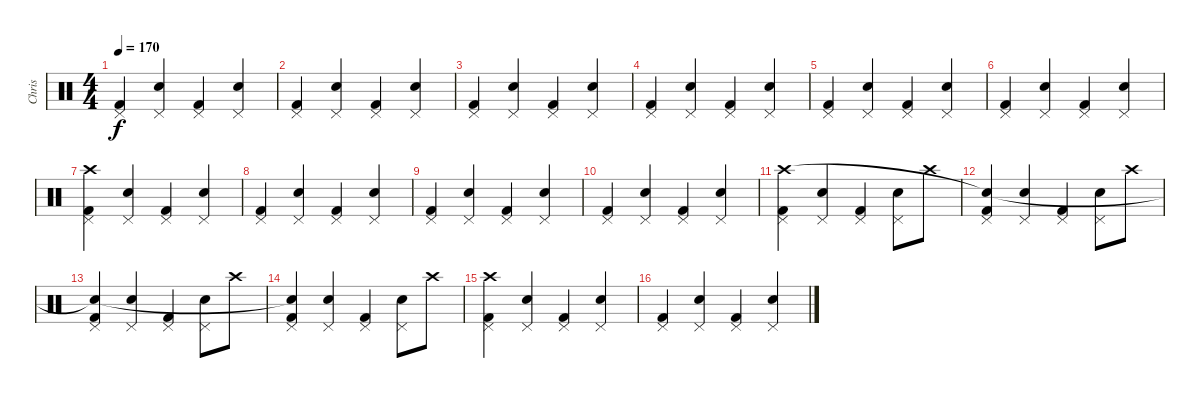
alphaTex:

\track ("Chris" "Chris") {instrument percussion}
\staff {score}
\articulation defaults
\ts (4 4)
\tempo 170
\clef neutral
\ks c
("Pedal Hi-Hat (hit)" "Kick (hit) 2").4{dy f} ("Pedal Hi-Hat (hit)" "Electric Snare (hit)").4 ("Pedal Hi-Hat (hit)" "Kick (hit) 2").4 ("Pedal Hi-Hat (hit)" "Electric Snare (hit)").4 |
("Pedal Hi-Hat (hit)" "Kick (hit) 2").4 ("Pedal Hi-Hat (hit)" "Electric Snare (hit)").4 ("Pedal Hi-Hat (hit)" "Kick (hit) 2").4 ("Pedal Hi-Hat (hit)" "Electric Snare (hit)").4 |
("Pedal Hi-Hat (hit)" "Kick (hit) 2").4 ("Pedal Hi-Hat (hit)" "Electric Snare (hit)").4 ("Pedal Hi-Hat (hit)" "Kick (hit) 2").4 ("Pedal Hi-Hat (hit)" "Electric Snare (hit)").4 |
("Pedal Hi-Hat (hit)" "Kick (hit) 2").4 ("Pedal Hi-Hat (hit)" "Electric Snare (hit)").4 ("Pedal Hi-Hat (hit)" "Kick (hit) 2").4 ("Pedal Hi-Hat (hit)" "Electric Snare (hit)").4 |
("Pedal Hi-Hat (hit)" "Kick (hit) 2").4 ("Pedal Hi-Hat (hit)" "Electric Snare (hit)").4 ("Pedal Hi-Hat (hit)" "Kick (hit) 2").4 ("Pedal Hi-Hat (hit)" "Electric Snare (hit)").4 |
("Pedal Hi-Hat (hit)" "Kick (hit) 2").4 ("Pedal Hi-Hat (hit)" "Electric Snare (hit)").4 ("Pedal Hi-Hat (hit)" "Kick (hit) 2").4 ("Pedal Hi-Hat (hit)" "Electric Snare (hit)").4 |
("Pedal Hi-Hat (hit)" "Kick (hit) 2" "Crash high (hit)").4 ("Pedal Hi-Hat (hit)" "Electric Snare (hit)").4 ("Pedal Hi-Hat (hit)" "Kick (hit) 2").4 ("Pedal Hi-Hat (hit)" "Electric Snare (hit)").4 |
("Pedal Hi-Hat (hit)" "Kick (hit) 2").4 ("Pedal Hi-Hat (hit)" "Electric Snare (hit)").4 ("Pedal Hi-Hat (hit)" "Kick (hit) 2").4 ("Pedal Hi-Hat (hit)" "Electric Snare (hit)").4 |
("Pedal Hi-Hat (hit)" "Kick (hit) 2").4 ("Pedal Hi-Hat (hit)" "Electric Snare (hit)").4 ("Pedal Hi-Hat (hit)" "Kick (hit) 2").4 ("Pedal Hi-Hat (hit)" "Electric Snare (hit)").4 |
("Pedal Hi-Hat (hit)" "Kick (hit) 2").4 ("Pedal Hi-Hat (hit)" "Electric Snare (hit)").4 ("Pedal Hi-Hat (hit)" "Kick (hit) 2").4 ("Pedal Hi-Hat (hit)" "Electric Snare (hit)").4 |
("Pedal Hi-Hat (hit)" "Kick (hit) 2" "Crash high (hit)").4 ("Pedal Hi-Hat (hit)" "Electric Snare (hit)").4 ("Pedal Hi-Hat (hit)" "Kick (hit) 2").4 ("Pedal Hi-Hat (hit)" "Electric Snare (hit)").8 "Crash high (hit)".8 |
("Pedal Hi-Hat (hit)" "Kick (hit) 2" "Snare (hit)"{t}).4 ("Pedal Hi-Hat (hit)" "Electric Snare (hit)").4 ("Pedal Hi-Hat (hit)" "Kick (hit) 2").4 ("Pedal Hi-Hat (hit)" "Electric Snare (hit)").8 "Crash high (hit)".8 |
("Pedal Hi-Hat (hit)" "Kick (hit) 2" "Snare (hit)"{t}).4 ("Pedal Hi-Hat (hit)" "Electric Snare (hit)").4 ("Pedal Hi-Hat (hit)" "Kick (hit) 2").4 ("Pedal Hi-Hat (hit)" "Electric Snare (hit)").8 "Crash high (hit)".8 |
("Pedal Hi-Hat (hit)" "Kick (hit) 2" "Snare (hit)"{t}).4 ("Pedal Hi-Hat (hit)" "Electric Snare (hit)").4 ("Pedal Hi-Hat (hit)" "Kick (hit) 2").4 ("Pedal Hi-Hat (hit)" "Electric Snare (hit)").8 "Crash high (hit)".8 |
("Pedal Hi-Hat (hit)" "Kick (hit) 2" "Crash high (hit)").4 ("Pedal Hi-Hat (hit)" "Electric Snare (hit)").4 ("Pedal Hi-Hat (hit)" "Kick (hit) 2").4 ("Pedal Hi-Hat (hit)" "Electric Snare (hit)").4 |
("Pedal Hi-Hat (hit)" "Kick (hit) 2").4 ("Pedal Hi-Hat (hit)" "Electric Snare (hit)").4 ("Pedal Hi-Hat (hit)" "Kick (hit) 2").4 ("Pedal Hi-Hat (hit)" "Electric Snare (hit)").4
